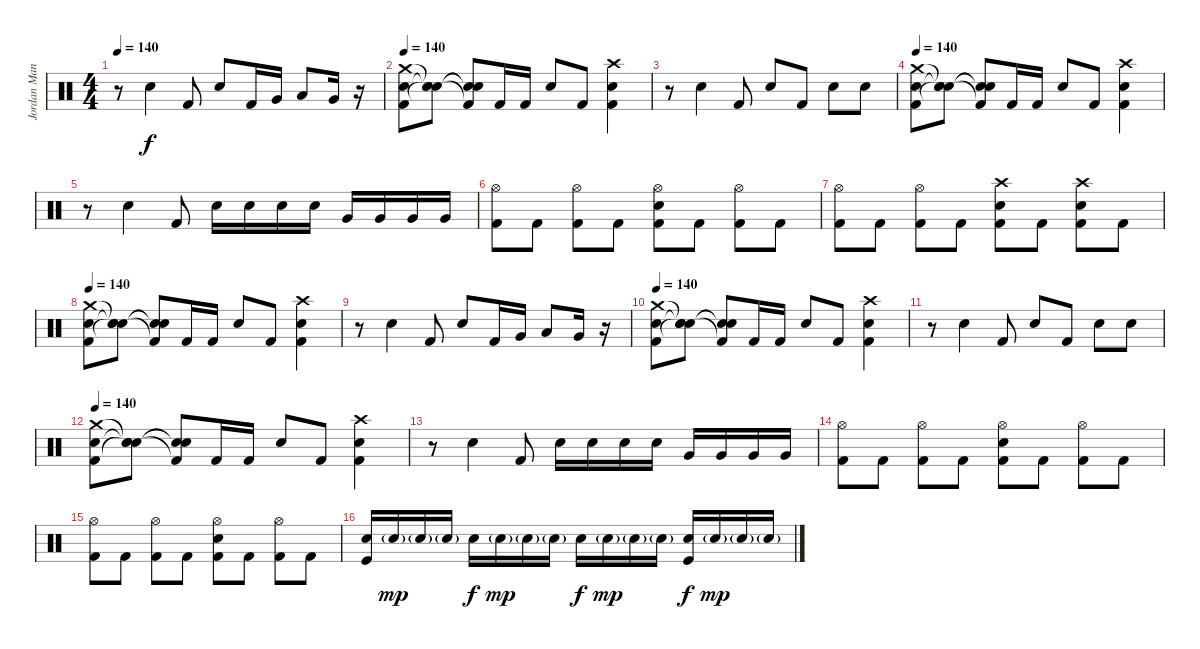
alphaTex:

\track ("Jordan Mancino - Drums" "Jordan Man") {instrument percussion}
\staff {score}
\articulation defaults
\ts (4 4)
\tempo 140
\clef neutral
\ks c
r.8{dy f} "Snare (hit) 2".4 "Kick (hit) 2".8 "Snare (hit) 2".8 "Kick (hit) 2".16 "Very Low Tom (hit)".16 "Low Floor Tom (hit)".8 "Very Low Tom (hit)".16 r.16 |
\tempo 140
("Crash medium (hit)" "Snare (hit) 2" "Kick (hit) 2").8 ("Snare (hit)"{t} "Snare (hit)"{t} "Snare (hit)"{t}).8 ("Snare (hit)"{t} "Snare (hit)"{t} "Kick (hit) 2"{t}).8 "Kick (hit) 2".16 "Kick (hit) 2".16 "Snare (hit) 2".8 "Kick (hit) 2".8 ("Crash high (hit)" "Snare (hit) 2" "Kick (hit) 2").4 |
r.8 "Snare (hit) 2".4 "Kick (hit) 2".8 "Snare (hit) 2".8 "Kick (hit) 2".8 "Snare (hit) 2".8 "Snare (hit) 2".8 |
\tempo 140
("Crash medium (hit)" "Snare (hit) 2" "Kick (hit) 2").8 ("Snare (hit)"{t} "Snare (hit)"{t} "Snare (hit)"{t}).8 ("Snare (hit)"{t} "Snare (hit)"{t} "Kick (hit) 2"{t}).8 "Kick (hit) 2".16 "Kick (hit) 2".16 "Snare (hit) 2".8 "Kick (hit) 2".8 ("Crash high (hit)" "Snare (hit) 2" "Kick (hit) 2").4 |
r.8 "Snare (hit) 2".4 "Kick (hit) 2".8 "Snare (hit) 2".16 "Snare (hit) 2".16 "Snare (hit) 2".16 "Snare (hit) 2".16 "Very Low Tom (hit)".16 "Very Low Tom (hit)".16 "Very Low Tom (hit)".16 "Very Low Tom (hit)".16 |
("Hi-Hat (open)" "Kick (hit) 2").8 "Kick (hit) 2".8 ("Hi-Hat (open)" "Kick (hit) 2").8 "Kick (hit) 2".8 ("Snare (hit) 2" "Hi-Hat (open)" "Kick (hit) 2").8 "Kick (hit) 2".8 ("Hi-Hat (open)" "Kick (hit) 2").8 "Kick (hit) 2".8 |
("Hi-Hat (open)" "Kick (hit) 2").8 "Kick (hit) 2".8 ("Hi-Hat (open)" "Kick (hit) 2").8 "Kick (hit) 2".8 ("Snare (hit) 2" "Crash high (hit)" "Kick (hit) 2").8 "Kick (hit) 2".8 ("Snare (hit) 2" "Crash high (hit)" "Kick (hit) 2").8 "Kick (hit) 2".8 |
\tempo 140
("Crash medium (hit)" "Snare (hit) 2" "Kick (hit) 2").8 ("Snare (hit)"{t} "Snare (hit)"{t} "Snare (hit)"{t}).8 ("Snare (hit)"{t} "Snare (hit)"{t} "Kick (hit) 2"{t}).8 "Kick (hit) 2".16 "Kick (hit) 2".16 "Snare (hit) 2".8 "Kick (hit) 2".8 ("Crash high (hit)" "Snare (hit) 2" "Kick (hit) 2").4 |
r.8 "Snare (hit) 2".4 "Kick (hit) 2".8 "Snare (hit) 2".8 "Kick (hit) 2".16 "Very Low Tom (hit)".16 "Low Floor Tom (hit)".8 "Very Low Tom (hit)".16 r.16 |
\tempo 140
("Crash medium (hit)" "Snare (hit) 2" "Kick (hit) 2").8 ("Snare (hit)"{t} "Snare (hit)"{t} "Snare (hit)"{t}).8 ("Snare (hit)"{t} "Snare (hit)"{t} "Kick (hit) 2"{t}).8 "Kick (hit) 2".16 "Kick (hit) 2".16 "Snare (hit) 2".8 "Kick (hit) 2".8 ("Crash high (hit)" "Snare (hit) 2" "Kick (hit) 2").4 |
r.8 "Snare (hit) 2".4 "Kick (hit) 2".8 "Snare (hit) 2".8 "Kick (hit) 2".8 "Snare (hit) 2".8 "Snare (hit) 2".8 |
\tempo 140
("Crash medium (hit)" "Snare (hit) 2" "Kick (hit) 2").8 ("Snare (hit)"{t} "Snare (hit)"{t} "Snare (hit)"{t}).8 ("Snare (hit)"{t} "Snare (hit)"{t} "Kick (hit) 2"{t}).8 "Kick (hit) 2".16 "Kick (hit) 2".16 "Snare (hit) 2".8 "Kick (hit) 2".8 ("Crash high (hit)" "Snare (hit) 2" "Kick (hit) 2").4 |
r.8 "Snare (hit) 2".4 "Kick (hit) 2".8 "Snare (hit) 2".16 "Snare (hit) 2".16 "Snare (hit) 2".16 "Snare (hit) 2".16 "Very Low Tom (hit)".16 "Very Low Tom (hit)".16 "Very Low Tom (hit)".16 "Very Low Tom (hit)".16 |
("Hi-Hat (open)" "Kick (hit) 2").8 "Kick (hit) 2".8 ("Hi-Hat (open)" "Kick (hit) 2").8 "Kick (hit) 2".8 ("Snare (hit) 2" "Hi-Hat (open)" "Kick (hit) 2").8 "Kick (hit) 2".8 ("Hi-Hat (open)" "Kick (hit) 2").8 "Kick (hit) 2".8 |
("Hi-Hat (open)" "Kick (hit) 2").8 "Kick (hit) 2".8 ("Hi-Hat (open)" "Kick (hit) 2").8 "Kick (hit) 2".8 ("Snare (hit) 2" "Hi-Hat (open)" "Kick (hit) 2").8 "Kick (hit) 2".8 ("Hi-Hat (open)" "Kick (hit) 2").8 "Kick (hit) 2".8 |
("Snare (hit) 2" "Kick (hit)").16 "Snare (hit) 2"{g}.16{dy mp} "Snare (hit) 2"{g}.16 "Snare (hit) 2"{g}.16 "Snare (hit) 2".16{dy f} "Snare (hit) 2"{g}.16{dy mp} "Snare (hit) 2"{g}.16 "Snare (hit) 2"{g}.16 "Snare (hit) 2".16{dy f} "Snare (hit) 2"{g}.16{dy mp} "Snare (hit) 2"{g}.16 "Snare (hit) 2"{g}.16 ("Snare (hit) 2" "Kick (hit)").16{dy f} "Snare (hit) 2"{g}.16{dy mp} "Snare (hit) 2"{g}.16 "Snare (hit) 2"{g}.16
